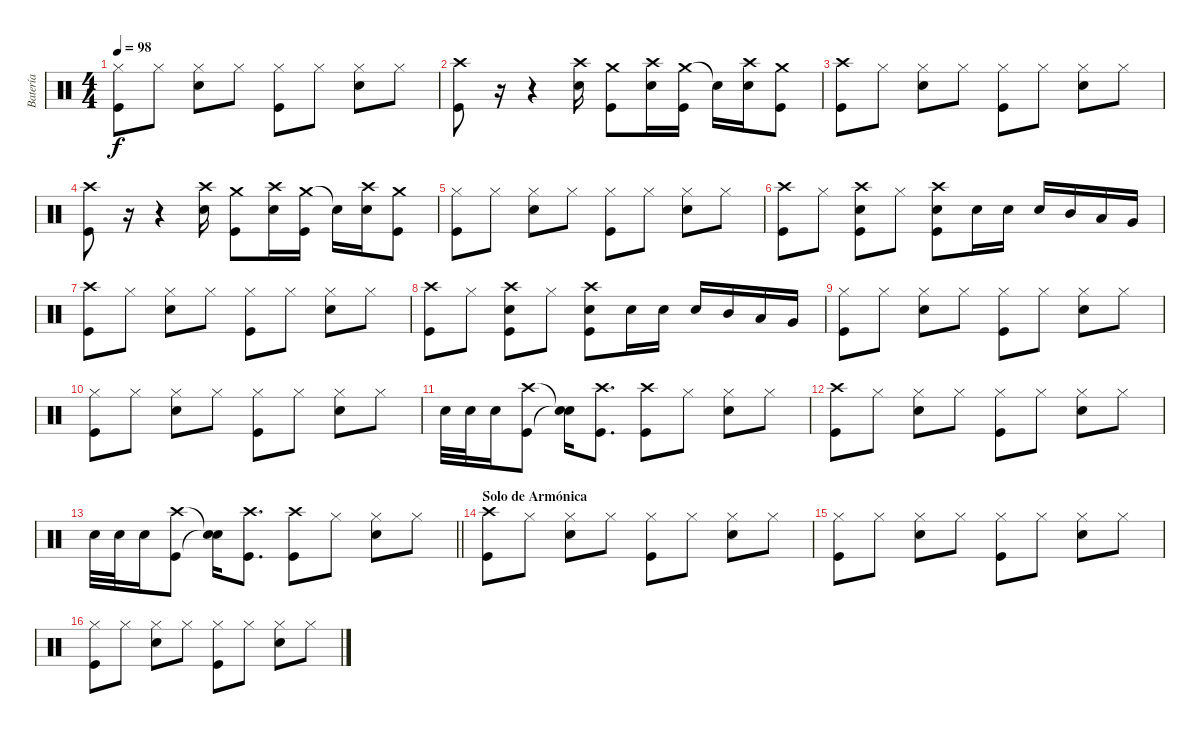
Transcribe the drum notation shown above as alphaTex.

\track ("Batería" "Batería") {instrument percussion}
\staff {score}
\articulation defaults
\ts (4 4)
\tempo 98
\clef neutral
\ks c
("Hi-Hat (closed)" "Kick (hit)").8{dy f} "Hi-Hat (closed)".8 ("Hi-Hat (closed)" "Electric Snare (hit)").8 "Hi-Hat (closed)".8 ("Hi-Hat (closed)" "Kick (hit)").8 "Hi-Hat (closed)".8 ("Hi-Hat (closed)" "Electric Snare (hit)").8 "Hi-Hat (closed)".8 |
("Crash high (hit)" "Kick (hit)").8 r.16 r.4 ("Crash high (hit)" "Electric Snare (hit)").16 ("Crash medium (hit)" "Kick (hit)").8 ("Crash high (hit)" "Electric Snare (hit)").16 ("Crash medium (hit)" "Kick (hit)").16 "Snare (hit)"{t}.16 ("Crash high (hit)" "Electric Snare (hit)").16 ("Crash medium (hit)" "Kick (hit)").8 |
("Crash high (hit)" "Kick (hit)").8 "Hi-Hat (closed)".8 ("Hi-Hat (closed)" "Electric Snare (hit)").8 "Hi-Hat (closed)".8 ("Hi-Hat (closed)" "Kick (hit)").8 "Hi-Hat (closed)".8 ("Hi-Hat (closed)" "Electric Snare (hit)").8 "Hi-Hat (closed)".8 |
("Crash high (hit)" "Kick (hit)").8 r.16 r.4 ("Crash high (hit)" "Electric Snare (hit)").16 ("Crash medium (hit)" "Kick (hit)").8 ("Crash high (hit)" "Electric Snare (hit)").16 ("Crash medium (hit)" "Kick (hit)").16 "Snare (hit)"{t}.16 ("Crash high (hit)" "Electric Snare (hit)").16 ("Crash medium (hit)" "Kick (hit)").8 |
("Hi-Hat (closed)" "Kick (hit)").8 "Hi-Hat (closed)".8 ("Hi-Hat (closed)" "Electric Snare (hit)").8 "Hi-Hat (closed)".8 ("Hi-Hat (closed)" "Kick (hit)").8 "Hi-Hat (closed)".8 ("Hi-Hat (closed)" "Electric Snare (hit)").8 "Hi-Hat (closed)".8 |
("Crash high (hit)" "Kick (hit)").8 "Hi-Hat (closed)".8 ("Crash high (hit)" "Electric Snare (hit)" "Kick (hit)").8 "Hi-Hat (closed)".8 ("Crash high (hit)" "Electric Snare (hit)" "Kick (hit)").8 "Electric Snare (hit)".16 "Electric Snare (hit)".16 "Electric Snare (hit)".16 "Mid Tom (hit)".16 "Low Tom (hit)".16 "Very Low Tom (hit)".16 |
("Crash high (hit)" "Kick (hit)").8 "Hi-Hat (closed)".8 ("Hi-Hat (closed)" "Electric Snare (hit)").8 "Hi-Hat (closed)".8 ("Hi-Hat (closed)" "Kick (hit)").8 "Hi-Hat (closed)".8 ("Hi-Hat (closed)" "Electric Snare (hit)").8 "Hi-Hat (closed)".8 |
("Crash high (hit)" "Kick (hit)").8 "Hi-Hat (closed)".8 ("Crash high (hit)" "Electric Snare (hit)" "Kick (hit)").8 "Hi-Hat (closed)".8 ("Crash high (hit)" "Electric Snare (hit)" "Kick (hit)").8 "Electric Snare (hit)".16 "Electric Snare (hit)".16 "Electric Snare (hit)".16 "Mid Tom (hit)".16 "Low Tom (hit)".16 "Very Low Tom (hit)".16 |
("Hi-Hat (closed)" "Kick (hit)").8 "Hi-Hat (closed)".8 ("Hi-Hat (closed)" "Electric Snare (hit)").8 "Hi-Hat (closed)".8 ("Hi-Hat (closed)" "Kick (hit)").8 "Hi-Hat (closed)".8 ("Hi-Hat (closed)" "Electric Snare (hit)").8 "Hi-Hat (closed)".8 |
("Hi-Hat (closed)" "Kick (hit)").8 "Hi-Hat (closed)".8 ("Hi-Hat (closed)" "Electric Snare (hit)").8 "Hi-Hat (closed)".8 ("Hi-Hat (closed)" "Kick (hit)").8 "Hi-Hat (closed)".8 ("Hi-Hat (closed)" "Electric Snare (hit)").8 "Hi-Hat (closed)".8 |
"Electric Snare (hit)".32 "Electric Snare (hit)".32 "Electric Snare (hit)".16 ("Crash high (hit)" "Kick (hit)").8 ("Snare (hit)"{t} "Snare (hit)"{t}).16 ("Crash high (hit)" "Kick (hit)").8{d} ("Crash high (hit)" "Kick (hit)").8 "Hi-Hat (closed)".8 ("Hi-Hat (closed)" "Electric Snare (hit)").8 "Hi-Hat (closed)".8 |
("Crash high (hit)" "Kick (hit)").8 "Hi-Hat (closed)".8 ("Hi-Hat (closed)" "Electric Snare (hit)").8 "Hi-Hat (closed)".8 ("Hi-Hat (closed)" "Kick (hit)").8 "Hi-Hat (closed)".8 ("Hi-Hat (closed)" "Electric Snare (hit)").8 "Hi-Hat (closed)".8 |
\barLineRight lightlight "Electric Snare (hit)".32 "Electric Snare (hit)".32 "Electric Snare (hit)".16
("Crash high (hit)" "Kick (hit)").8 ("Snare (hit)"{t} "Snare (hit)"{t}).16 ("Crash high (hit)" "Kick (hit)").8{d} ("Crash high (hit)" "Kick (hit)").8 "Hi-Hat (closed)".8 ("Hi-Hat (closed)" "Electric Snare (hit)").8 "Hi-Hat (closed)".8 |
\section ("" "Solo de Armónica")
("Crash high (hit)" "Kick (hit)").8 "Hi-Hat (closed)".8 ("Hi-Hat (closed)" "Electric Snare (hit)").8 "Hi-Hat (closed)".8 ("Hi-Hat (closed)" "Kick (hit)").8 "Hi-Hat (closed)".8 ("Hi-Hat (closed)" "Electric Snare (hit)").8 "Hi-Hat (closed)".8 |
("Hi-Hat (closed)" "Kick (hit)").8 "Hi-Hat (closed)".8 ("Hi-Hat (closed)" "Electric Snare (hit)").8 "Hi-Hat (closed)".8 ("Hi-Hat (closed)" "Kick (hit)").8 "Hi-Hat (closed)".8 ("Hi-Hat (closed)" "Electric Snare (hit)").8 "Hi-Hat (closed)".8 |
("Hi-Hat (closed)" "Kick (hit)").8 "Hi-Hat (closed)".8 ("Hi-Hat (closed)" "Electric Snare (hit)").8 "Hi-Hat (closed)".8 ("Hi-Hat (closed)" "Kick (hit)").8 "Hi-Hat (closed)".8 ("Hi-Hat (closed)" "Electric Snare (hit)").8 "Hi-Hat (closed)".8
